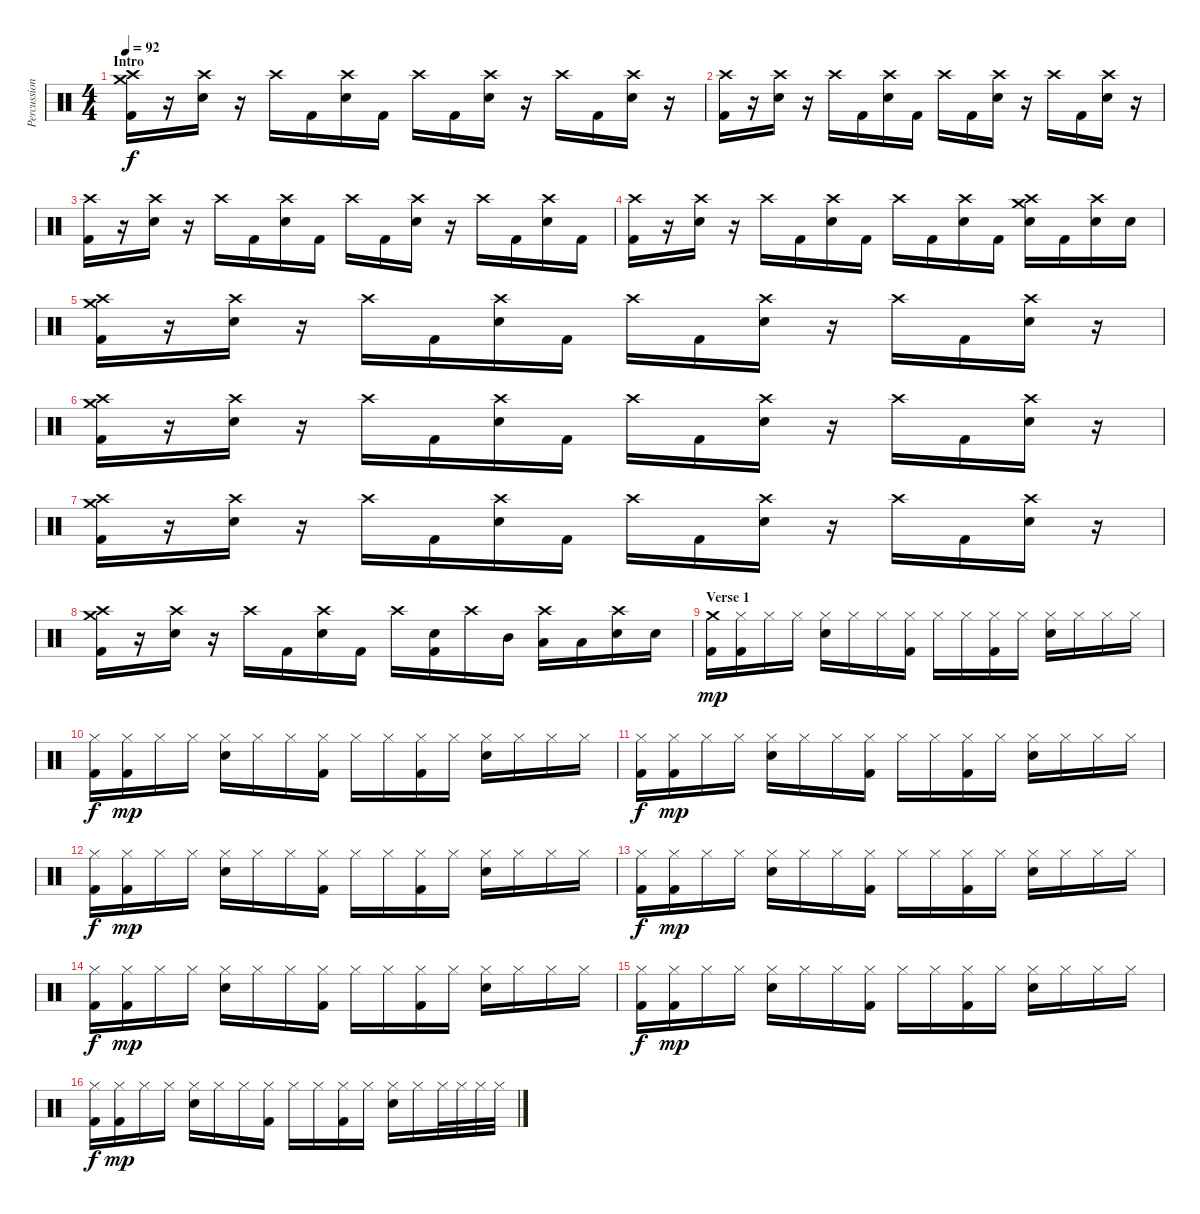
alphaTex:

\track ("Percussion" "Percussion") {instrument percussion}
\staff {score}
\articulation defaults
\ts (4 4)
\section ("" "Intro")
\tempo 92
\clef neutral
\ks c
("Crash high (hit)" "Crash medium (hit)" "Kick (hit) 2").16{dy f} r.16 ("Crash high (hit)" "Snare (hit) 2").16 r.16 "Crash high (hit)".16 "Kick (hit) 2".16 ("Crash high (hit)" "Snare (hit) 2").16 "Kick (hit) 2".16 "Crash high (hit)".16 "Kick (hit) 2".16 ("Crash high (hit)" "Snare (hit) 2").16 r.16 "Crash high (hit)".16 "Kick (hit) 2".16 ("Crash high (hit)" "Snare (hit) 2").16 r.16 |
("Crash high (hit)" "Kick (hit) 2").16 r.16 ("Crash high (hit)" "Snare (hit) 2").16 r.16 "Crash high (hit)".16 "Kick (hit) 2".16 ("Crash high (hit)" "Snare (hit) 2").16 "Kick (hit) 2".16 "Crash high (hit)".16 "Kick (hit) 2".16 ("Crash high (hit)" "Snare (hit) 2").16 r.16 "Crash high (hit)".16 "Kick (hit) 2".16 ("Crash high (hit)" "Snare (hit) 2").16 r.16 |
("Crash high (hit)" "Kick (hit) 2").16 r.16 ("Crash high (hit)" "Snare (hit) 2").16 r.16 "Crash high (hit)".16 "Kick (hit) 2".16 ("Crash high (hit)" "Snare (hit) 2").16 "Kick (hit) 2".16 "Crash high (hit)".16 "Kick (hit) 2".16 ("Crash high (hit)" "Snare (hit) 2").16 r.16 "Crash high (hit)".16 "Kick (hit) 2".16 ("Crash high (hit)" "Snare (hit) 2").16 "Kick (hit) 2".16 |
("Crash high (hit)" "Kick (hit) 2").16 r.16 ("Crash high (hit)" "Snare (hit) 2").16 r.16 "Crash high (hit)".16 "Kick (hit) 2".16 ("Crash high (hit)" "Snare (hit) 2").16 "Kick (hit) 2".16 "Crash high (hit)".16 "Kick (hit) 2".16 ("Crash high (hit)" "Snare (hit) 2").16 "Kick (hit) 2".16 ("Crash high (hit)" "Crash medium (hit)" "Snare (hit) 2").16 "Kick (hit) 2".16 ("Crash high (hit)" "Snare (hit) 2").16 "Snare (hit) 2".16 |
("Crash high (hit)" "Crash medium (hit)" "Kick (hit) 2").16 r.16 ("Crash high (hit)" "Snare (hit) 2").16 r.16 "Crash high (hit)".16 "Kick (hit) 2".16 ("Crash high (hit)" "Snare (hit) 2").16 "Kick (hit) 2".16 "Crash high (hit)".16 "Kick (hit) 2".16 ("Crash high (hit)" "Snare (hit) 2").16 r.16 "Crash high (hit)".16 "Kick (hit) 2".16 ("Crash high (hit)" "Snare (hit) 2").16 r.16 |
("Crash high (hit)" "Crash medium (hit)" "Kick (hit) 2").16 r.16 ("Crash high (hit)" "Snare (hit) 2").16 r.16 "Crash high (hit)".16 "Kick (hit) 2".16 ("Crash high (hit)" "Snare (hit) 2").16 "Kick (hit) 2".16 "Crash high (hit)".16 "Kick (hit) 2".16 ("Crash high (hit)" "Snare (hit) 2").16 r.16 "Crash high (hit)".16 "Kick (hit) 2".16 ("Crash high (hit)" "Snare (hit) 2").16 r.16 |
("Crash high (hit)" "Crash medium (hit)" "Kick (hit) 2").16 r.16 ("Crash high (hit)" "Snare (hit) 2").16 r.16 "Crash high (hit)".16 "Kick (hit) 2".16 ("Crash high (hit)" "Snare (hit) 2").16 "Kick (hit) 2".16 "Crash high (hit)".16 "Kick (hit) 2".16 ("Crash high (hit)" "Snare (hit) 2").16 r.16 "Crash high (hit)".16 "Kick (hit) 2".16 ("Crash high (hit)" "Snare (hit) 2").16 r.16 |
("Crash high (hit)" "Crash medium (hit)" "Kick (hit) 2").16 r.16 ("Crash high (hit)" "Snare (hit) 2").16 r.16 "Crash high (hit)".16 "Kick (hit) 2".16 ("Crash high (hit)" "Snare (hit) 2").16 "Kick (hit) 2".16 "Crash high (hit)".16 ("Snare (hit) 2" "Kick (hit) 2").16 "Crash high (hit)".16 "Mid Tom (hit)".16 ("Crash high (hit)" "Low Tom (hit)").16 "Low Tom (hit)".16 ("Crash high (hit)" "Snare (hit) 2").16 "Snare (hit) 2".16 |
\section ("" "Verse 1")
("Crash medium (hit)" "Kick (hit) 2").16{dy mp} ("Hi-Hat (closed)" "Kick (hit) 2").16 "Hi-Hat (closed)".16 "Hi-Hat (closed)".16 ("Hi-Hat (closed)" "Snare (hit) 2").16 "Hi-Hat (closed)".16 "Hi-Hat (closed)".16 ("Hi-Hat (closed)" "Kick (hit) 2").16 "Hi-Hat (closed)".16 "Hi-Hat (closed)".16 ("Hi-Hat (closed)" "Kick (hit) 2").16 "Hi-Hat (closed)".16 ("Hi-Hat (closed)" "Snare (hit) 2").16 "Hi-Hat (closed)".16 "Hi-Hat (closed)".16 "Hi-Hat (closed)".16 |
("Hi-Hat (closed)" "Kick (hit) 2").16{dy f} ("Hi-Hat (closed)" "Kick (hit) 2").16{dy mp} "Hi-Hat (closed)".16 "Hi-Hat (closed)".16 ("Hi-Hat (closed)" "Snare (hit) 2").16 "Hi-Hat (closed)".16 "Hi-Hat (closed)".16 ("Hi-Hat (closed)" "Kick (hit) 2").16 "Hi-Hat (closed)".16 "Hi-Hat (closed)".16 ("Hi-Hat (closed)" "Kick (hit) 2").16 "Hi-Hat (closed)".16 ("Hi-Hat (closed)" "Snare (hit) 2").16 "Hi-Hat (closed)".16 "Hi-Hat (closed)".16 "Hi-Hat (closed)".16 |
("Hi-Hat (closed)" "Kick (hit) 2").16{dy f} ("Hi-Hat (closed)" "Kick (hit) 2").16{dy mp} "Hi-Hat (closed)".16 "Hi-Hat (closed)".16 ("Hi-Hat (closed)" "Snare (hit) 2").16 "Hi-Hat (closed)".16 "Hi-Hat (closed)".16 ("Hi-Hat (closed)" "Kick (hit) 2").16 "Hi-Hat (closed)".16 "Hi-Hat (closed)".16 ("Hi-Hat (closed)" "Kick (hit) 2").16 "Hi-Hat (closed)".16 ("Hi-Hat (closed)" "Snare (hit) 2").16 "Hi-Hat (closed)".16 "Hi-Hat (closed)".16 "Hi-Hat (closed)".16 |
("Hi-Hat (closed)" "Kick (hit) 2").16{dy f} ("Hi-Hat (closed)" "Kick (hit) 2").16{dy mp} "Hi-Hat (closed)".16 "Hi-Hat (closed)".16 ("Hi-Hat (closed)" "Snare (hit) 2").16 "Hi-Hat (closed)".16 "Hi-Hat (closed)".16 ("Hi-Hat (closed)" "Kick (hit) 2").16 "Hi-Hat (closed)".16 "Hi-Hat (closed)".16 ("Hi-Hat (closed)" "Kick (hit) 2").16 "Hi-Hat (closed)".16 ("Hi-Hat (closed)" "Snare (hit) 2").16 "Hi-Hat (closed)".16 "Hi-Hat (closed)".16 "Hi-Hat (closed)".16 |
("Hi-Hat (closed)" "Kick (hit) 2").16{dy f} ("Hi-Hat (closed)" "Kick (hit) 2").16{dy mp} "Hi-Hat (closed)".16 "Hi-Hat (closed)".16 ("Hi-Hat (closed)" "Snare (hit) 2").16 "Hi-Hat (closed)".16 "Hi-Hat (closed)".16 ("Hi-Hat (closed)" "Kick (hit) 2").16 "Hi-Hat (closed)".16 "Hi-Hat (closed)".16 ("Hi-Hat (closed)" "Kick (hit) 2").16 "Hi-Hat (closed)".16 ("Hi-Hat (closed)" "Snare (hit) 2").16 "Hi-Hat (closed)".16 "Hi-Hat (closed)".16 "Hi-Hat (closed)".16 |
("Hi-Hat (closed)" "Kick (hit) 2").16{dy f} ("Hi-Hat (closed)" "Kick (hit) 2").16{dy mp} "Hi-Hat (closed)".16 "Hi-Hat (closed)".16 ("Hi-Hat (closed)" "Snare (hit) 2").16 "Hi-Hat (closed)".16 "Hi-Hat (closed)".16 ("Hi-Hat (closed)" "Kick (hit) 2").16 "Hi-Hat (closed)".16 "Hi-Hat (closed)".16 ("Hi-Hat (closed)" "Kick (hit) 2").16 "Hi-Hat (closed)".16 ("Hi-Hat (closed)" "Snare (hit) 2").16 "Hi-Hat (closed)".16 "Hi-Hat (closed)".16 "Hi-Hat (closed)".16 |
("Hi-Hat (closed)" "Kick (hit) 2").16{dy f} ("Hi-Hat (closed)" "Kick (hit) 2").16{dy mp} "Hi-Hat (closed)".16 "Hi-Hat (closed)".16 ("Hi-Hat (closed)" "Snare (hit) 2").16 "Hi-Hat (closed)".16 "Hi-Hat (closed)".16 ("Hi-Hat (closed)" "Kick (hit) 2").16 "Hi-Hat (closed)".16 "Hi-Hat (closed)".16 ("Hi-Hat (closed)" "Kick (hit) 2").16 "Hi-Hat (closed)".16 ("Hi-Hat (closed)" "Snare (hit) 2").16 "Hi-Hat (closed)".16 "Hi-Hat (closed)".16 "Hi-Hat (closed)".16 |
("Hi-Hat (closed)" "Kick (hit) 2").16{dy f} ("Hi-Hat (closed)" "Kick (hit) 2").16{dy mp} "Hi-Hat (closed)".16 "Hi-Hat (closed)".16 ("Hi-Hat (closed)" "Snare (hit) 2").16 "Hi-Hat (closed)".16 "Hi-Hat (closed)".16 ("Hi-Hat (closed)" "Kick (hit) 2").16 "Hi-Hat (closed)".16 "Hi-Hat (closed)".16 ("Hi-Hat (closed)" "Kick (hit) 2").16 "Hi-Hat (closed)".16 ("Hi-Hat (closed)" "Snare (hit) 2").16 "Hi-Hat (closed)".16 "Hi-Hat (closed)".32 "Hi-Hat (closed)".32 "Hi-Hat (closed)".32 "Hi-Hat (closed)".32
